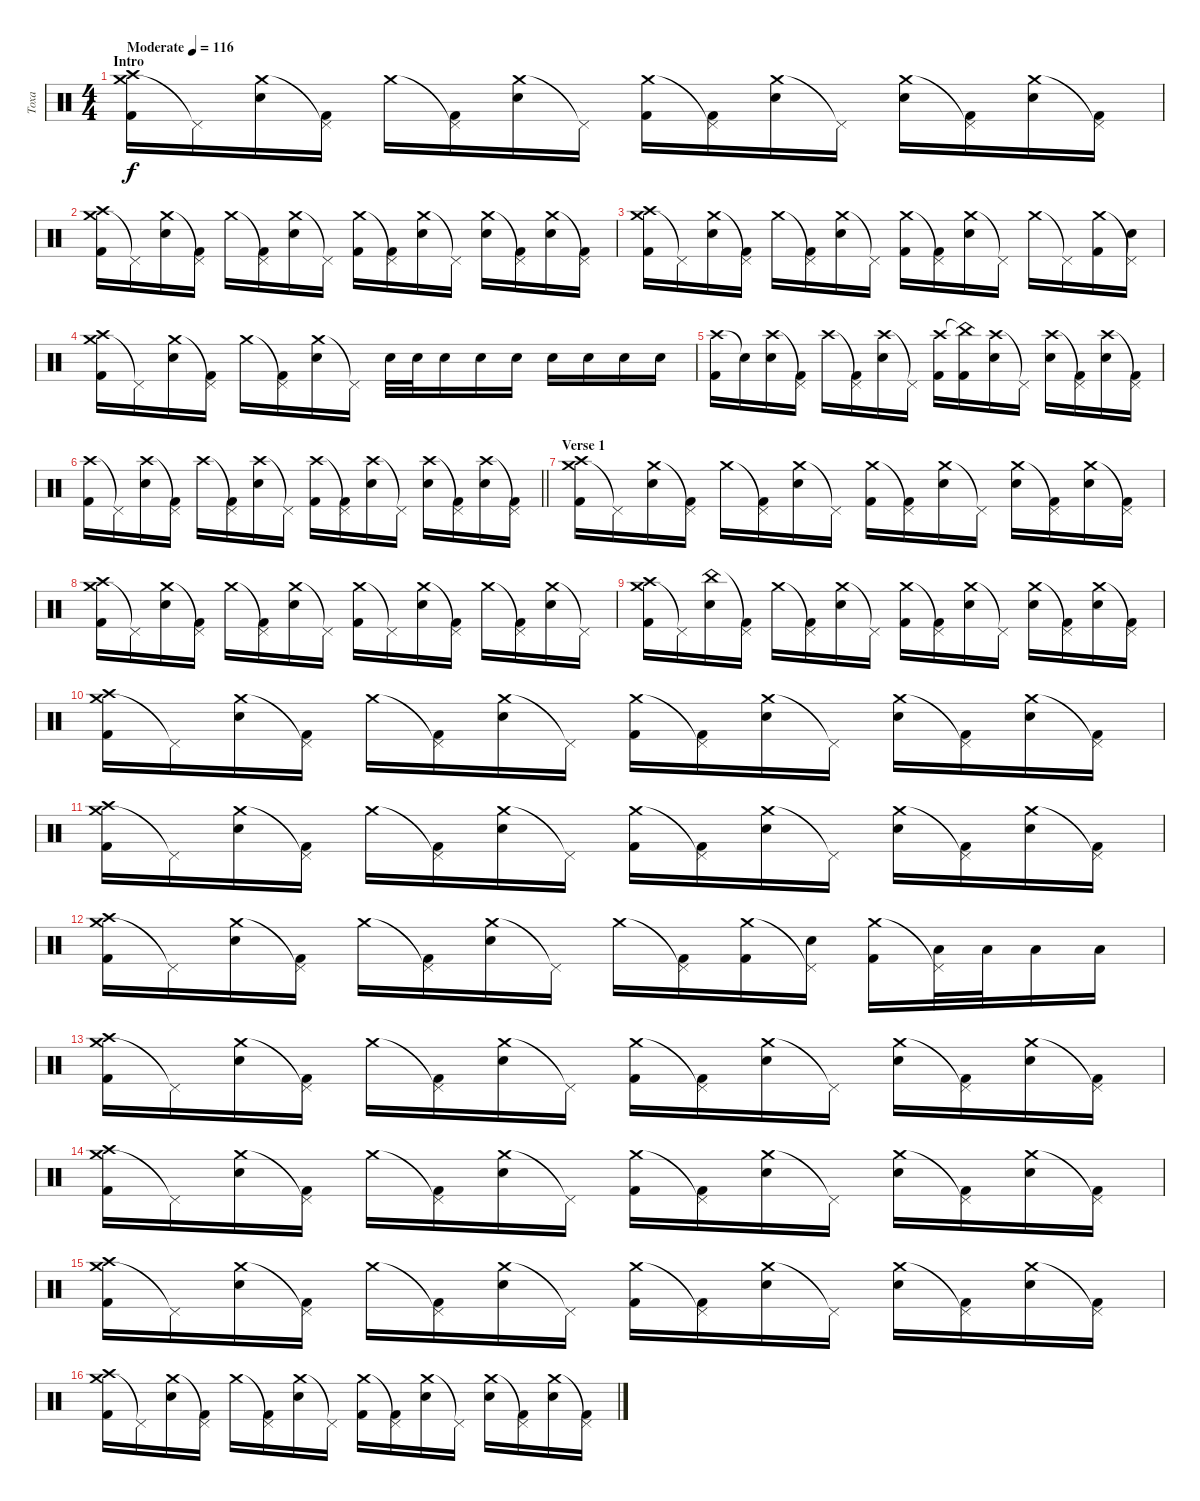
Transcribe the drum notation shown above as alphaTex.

\track ("Тоха" "Тоха") {instrument percussion}
\staff {score}
\articulation defaults
\ts (4 4)
\section ("" "Intro")
\tempo (116 "Moderate")
\clef neutral
\ks c
("Crash medium (hit)" "Crash high (hit)" "Kick (hit) 2").16{dy f} "Pedal Hi-Hat (hit)"{t}.16 ("Crash medium (hit)" "Snare (hit) 2").16 ("Pedal Hi-Hat (hit)"{t} "Kick (hit) 2").16 "Crash medium (hit)".16 ("Pedal Hi-Hat (hit)"{t} "Kick (hit) 2").16 ("Crash medium (hit)" "Snare (hit) 2").16 "Pedal Hi-Hat (hit)"{t}.16 ("Crash medium (hit)" "Kick (hit) 2").16 ("Pedal Hi-Hat (hit)"{t} "Kick (hit) 2").16 ("Crash medium (hit)" "Snare (hit) 2").16 "Pedal Hi-Hat (hit)"{t}.16 ("Crash medium (hit)" "Snare (hit) 2").16 ("Pedal Hi-Hat (hit)"{t} "Kick (hit) 2").16 ("Crash medium (hit)" "Snare (hit) 2").16 ("Pedal Hi-Hat (hit)"{t} "Kick (hit) 2").16 |
("Crash medium (hit)" "Crash high (hit)" "Kick (hit) 2").16 "Pedal Hi-Hat (hit)"{t}.16 ("Crash medium (hit)" "Snare (hit) 2").16 ("Pedal Hi-Hat (hit)"{t} "Kick (hit) 2").16 "Crash medium (hit)".16 ("Pedal Hi-Hat (hit)"{t} "Kick (hit) 2").16 ("Crash medium (hit)" "Snare (hit) 2").16 "Pedal Hi-Hat (hit)"{t}.16 ("Crash medium (hit)" "Kick (hit) 2").16 ("Pedal Hi-Hat (hit)"{t} "Kick (hit) 2").16 ("Crash medium (hit)" "Snare (hit) 2").16 "Pedal Hi-Hat (hit)"{t}.16 ("Crash medium (hit)" "Snare (hit) 2").16 ("Pedal Hi-Hat (hit)"{t} "Kick (hit) 2").16 ("Crash medium (hit)" "Snare (hit) 2").16 ("Pedal Hi-Hat (hit)"{t} "Kick (hit) 2").16 |
("Crash medium (hit)" "Crash high (hit)" "Kick (hit) 2").16 "Pedal Hi-Hat (hit)"{t}.16 ("Crash medium (hit)" "Snare (hit) 2").16 ("Pedal Hi-Hat (hit)"{t} "Kick (hit) 2").16 "Crash medium (hit)".16 ("Pedal Hi-Hat (hit)"{t} "Kick (hit) 2").16 ("Crash medium (hit)" "Snare (hit) 2").16 "Pedal Hi-Hat (hit)"{t}.16 ("Crash medium (hit)" "Kick (hit) 2").16 ("Pedal Hi-Hat (hit)"{t} "Kick (hit) 2").16 ("Crash medium (hit)" "Snare (hit) 2").16 "Pedal Hi-Hat (hit)"{t}.16 "Crash medium (hit)".16 "Pedal Hi-Hat (hit)"{t}.16 ("Crash medium (hit)" "Kick (hit) 2").16 ("Pedal Hi-Hat (hit)"{t} "Snare (hit) 2").16 |
("Crash medium (hit)" "Crash high (hit)" "Kick (hit) 2").16 "Pedal Hi-Hat (hit)"{t}.16 ("Crash medium (hit)" "Snare (hit) 2").16 ("Pedal Hi-Hat (hit)"{t} "Kick (hit) 2").16 "Crash medium (hit)".16 ("Pedal Hi-Hat (hit)"{t} "Kick (hit) 2").16 ("Crash medium (hit)" "Snare (hit) 2").16 "Pedal Hi-Hat (hit)"{t}.16 "Snare (hit) 2".32 "Snare (hit) 2".32 "Snare (hit) 2".16 "Snare (hit) 2".16 "Snare (hit) 2".16 "Snare (hit) 2".16 "Snare (hit) 2".16 "Snare (hit) 2".16 "Snare (hit) 2".16 |
("Crash high (hit)" "Kick (hit) 2").16 "Snare (hit)"{t}.16 ("Crash high (hit)" "Snare (hit) 2").16 ("Pedal Hi-Hat (hit)"{t} "Kick (hit) 2").16 "Crash high (hit)".16 ("Pedal Hi-Hat (hit)"{t} "Kick (hit) 2").16 ("Crash high (hit)" "Snare (hit) 2").16 "Pedal Hi-Hat (hit)"{t}.16 ("Crash high (hit)" "Kick (hit) 2").16 ("China (hit)"{t} "Kick (hit) 2").16 ("Crash high (hit)" "Snare (hit) 2").16 "Pedal Hi-Hat (hit)"{t}.16 ("Crash high (hit)" "Snare (hit) 2").16 ("Pedal Hi-Hat (hit)"{t} "Kick (hit) 2").16 ("Crash high (hit)" "Snare (hit) 2").16 ("Pedal Hi-Hat (hit)"{t} "Kick (hit) 2").16 |
\barLineRight lightlight
("Crash high (hit)" "Kick (hit) 2").16 "Pedal Hi-Hat (hit)"{t}.16 ("Crash high (hit)" "Snare (hit) 2").16 ("Pedal Hi-Hat (hit)"{t} "Kick (hit) 2").16 "Crash high (hit)".16 ("Pedal Hi-Hat (hit)"{t} "Kick (hit) 2").16 ("Crash high (hit)" "Snare (hit) 2").16 "Pedal Hi-Hat (hit)"{t}.16 ("Crash high (hit)" "Kick (hit) 2").16 ("Pedal Hi-Hat (hit)"{t} "Kick (hit) 2").16 ("Crash high (hit)" "Snare (hit) 2").16 "Pedal Hi-Hat (hit)"{t}.16 ("Crash high (hit)" "Snare (hit) 2").16 ("Pedal Hi-Hat (hit)"{t} "Kick (hit) 2").16 ("Crash high (hit)" "Snare (hit) 2").16 ("Pedal Hi-Hat (hit)"{t} "Kick (hit) 2").16 |
\section ("" "Verse 1")
("Crash medium (hit)" "Crash high (hit)" "Kick (hit) 2").16 "Pedal Hi-Hat (hit)"{t}.16 ("Crash medium (hit)" "Snare (hit) 2").16 ("Pedal Hi-Hat (hit)"{t} "Kick (hit) 2").16 "Crash medium (hit)".16 ("Pedal Hi-Hat (hit)"{t} "Kick (hit) 2").16 ("Crash medium (hit)" "Snare (hit) 2").16 "Pedal Hi-Hat (hit)"{t}.16 ("Crash medium (hit)" "Kick (hit) 2").16 ("Pedal Hi-Hat (hit)"{t} "Kick (hit) 2").16 ("Crash medium (hit)" "Snare (hit) 2").16 "Pedal Hi-Hat (hit)"{t}.16 ("Crash medium (hit)" "Snare (hit) 2").16 ("Pedal Hi-Hat (hit)"{t} "Kick (hit) 2").16 ("Crash medium (hit)" "Snare (hit) 2").16 ("Pedal Hi-Hat (hit)"{t} "Kick (hit) 2").16 |
("Crash medium (hit)" "Crash high (hit)" "Kick (hit) 2").16 "Pedal Hi-Hat (hit)"{t}.16 ("Crash medium (hit)" "Snare (hit) 2").16 ("Pedal Hi-Hat (hit)"{t} "Kick (hit) 2").16 "Crash medium (hit)".16 ("Pedal Hi-Hat (hit)"{t} "Kick (hit) 2").16 ("Crash medium (hit)" "Snare (hit) 2").16 "Pedal Hi-Hat (hit)"{t}.16 ("Crash medium (hit)" "Kick (hit) 2").16 "Pedal Hi-Hat (hit)"{t}.16 ("Crash medium (hit)" "Snare (hit) 2").16 ("Pedal Hi-Hat (hit)"{t} "Kick (hit) 2").16 "Crash medium (hit)".16 ("Pedal Hi-Hat (hit)"{t} "Kick (hit) 2").16 ("Crash medium (hit)" "Snare (hit) 2").16 "Pedal Hi-Hat (hit)"{t}.16 |
("Crash medium (hit)" "Crash high (hit)" "Kick (hit) 2").16 "Pedal Hi-Hat (hit)"{t}.16 ("China (hit)" "Snare (hit) 2").16 ("Pedal Hi-Hat (hit)"{t} "Kick (hit) 2").16 "Crash medium (hit)".16 ("Pedal Hi-Hat (hit)"{t} "Kick (hit) 2").16 ("Crash medium (hit)" "Snare (hit) 2").16 "Pedal Hi-Hat (hit)"{t}.16 ("Crash medium (hit)" "Kick (hit) 2").16 ("Pedal Hi-Hat (hit)"{t} "Kick (hit) 2").16 ("Crash medium (hit)" "Snare (hit) 2").16 "Pedal Hi-Hat (hit)"{t}.16 ("Crash medium (hit)" "Snare (hit) 2").16 ("Pedal Hi-Hat (hit)"{t} "Kick (hit) 2").16 ("Crash medium (hit)" "Snare (hit) 2").16 ("Pedal Hi-Hat (hit)"{t} "Kick (hit) 2").16 |
("Crash medium (hit)" "Crash high (hit)" "Kick (hit) 2").16 "Pedal Hi-Hat (hit)"{t}.16 ("Crash medium (hit)" "Snare (hit) 2").16 ("Pedal Hi-Hat (hit)"{t} "Kick (hit) 2").16 "Crash medium (hit)".16 ("Pedal Hi-Hat (hit)"{t} "Kick (hit) 2").16 ("Crash medium (hit)" "Snare (hit) 2").16 "Pedal Hi-Hat (hit)"{t}.16 ("Crash medium (hit)" "Kick (hit) 2").16 ("Pedal Hi-Hat (hit)"{t} "Kick (hit) 2").16 ("Crash medium (hit)" "Snare (hit) 2").16 "Pedal Hi-Hat (hit)"{t}.16 ("Crash medium (hit)" "Snare (hit) 2").16 ("Pedal Hi-Hat (hit)"{t} "Kick (hit) 2").16 ("Crash medium (hit)" "Snare (hit) 2").16 ("Pedal Hi-Hat (hit)"{t} "Kick (hit) 2").16 |
("Crash medium (hit)" "Crash high (hit)" "Kick (hit) 2").16 "Pedal Hi-Hat (hit)"{t}.16 ("Crash medium (hit)" "Snare (hit) 2").16 ("Pedal Hi-Hat (hit)"{t} "Kick (hit) 2").16 "Crash medium (hit)".16 ("Pedal Hi-Hat (hit)"{t} "Kick (hit) 2").16 ("Crash medium (hit)" "Snare (hit) 2").16 "Pedal Hi-Hat (hit)"{t}.16 ("Crash medium (hit)" "Kick (hit) 2").16 ("Pedal Hi-Hat (hit)"{t} "Kick (hit) 2").16 ("Crash medium (hit)" "Snare (hit) 2").16 "Pedal Hi-Hat (hit)"{t}.16 ("Crash medium (hit)" "Snare (hit) 2").16 ("Pedal Hi-Hat (hit)"{t} "Kick (hit) 2").16 ("Crash medium (hit)" "Snare (hit) 2").16 ("Pedal Hi-Hat (hit)"{t} "Kick (hit) 2").16 |
("Crash medium (hit)" "Crash high (hit)" "Kick (hit) 2").16 "Pedal Hi-Hat (hit)"{t}.16 ("Crash medium (hit)" "Snare (hit) 2").16 ("Pedal Hi-Hat (hit)"{t} "Kick (hit) 2").16 "Crash medium (hit)".16 ("Pedal Hi-Hat (hit)"{t} "Kick (hit) 2").16 ("Crash medium (hit)" "Snare (hit) 2").16 "Pedal Hi-Hat (hit)"{t}.16 "Crash medium (hit)".16 ("Pedal Hi-Hat (hit)"{t} "Kick (hit) 2").16 ("Crash medium (hit)" "Kick (hit) 2").16 ("Pedal Hi-Hat (hit)"{t} "Snare (hit) 2").16 ("Crash medium (hit)" "Kick (hit) 2").16 ("Pedal Hi-Hat (hit)"{t} "Low Floor Tom (hit)").32 "Low Floor Tom (hit)".32 "Low Floor Tom (hit)".16 "Low Floor Tom (hit)".16 |
("Crash medium (hit)" "Crash high (hit)" "Kick (hit) 2").16 "Pedal Hi-Hat (hit)"{t}.16 ("Crash medium (hit)" "Snare (hit) 2").16 ("Pedal Hi-Hat (hit)"{t} "Kick (hit) 2").16 "Crash medium (hit)".16 ("Pedal Hi-Hat (hit)"{t} "Kick (hit) 2").16 ("Crash medium (hit)" "Snare (hit) 2").16 "Pedal Hi-Hat (hit)"{t}.16 ("Crash medium (hit)" "Kick (hit) 2").16 ("Pedal Hi-Hat (hit)"{t} "Kick (hit) 2").16 ("Crash medium (hit)" "Snare (hit) 2").16 "Pedal Hi-Hat (hit)"{t}.16 ("Crash medium (hit)" "Snare (hit) 2").16 ("Pedal Hi-Hat (hit)"{t} "Kick (hit) 2").16 ("Crash medium (hit)" "Snare (hit) 2").16 ("Pedal Hi-Hat (hit)"{t} "Kick (hit) 2").16 |
("Crash medium (hit)" "Crash high (hit)" "Kick (hit) 2").16 "Pedal Hi-Hat (hit)"{t}.16 ("Crash medium (hit)" "Snare (hit) 2").16 ("Pedal Hi-Hat (hit)"{t} "Kick (hit) 2").16 "Crash medium (hit)".16 ("Pedal Hi-Hat (hit)"{t} "Kick (hit) 2").16 ("Crash medium (hit)" "Snare (hit) 2").16 "Pedal Hi-Hat (hit)"{t}.16 ("Crash medium (hit)" "Kick (hit) 2").16 ("Pedal Hi-Hat (hit)"{t} "Kick (hit) 2").16 ("Crash medium (hit)" "Snare (hit) 2").16 "Pedal Hi-Hat (hit)"{t}.16 ("Crash medium (hit)" "Snare (hit) 2").16 ("Pedal Hi-Hat (hit)"{t} "Kick (hit) 2").16 ("Crash medium (hit)" "Snare (hit) 2").16 ("Pedal Hi-Hat (hit)"{t} "Kick (hit) 2").16 |
("Crash medium (hit)" "Crash high (hit)" "Kick (hit) 2").16 "Pedal Hi-Hat (hit)"{t}.16 ("Crash medium (hit)" "Snare (hit) 2").16 ("Pedal Hi-Hat (hit)"{t} "Kick (hit) 2").16 "Crash medium (hit)".16 ("Pedal Hi-Hat (hit)"{t} "Kick (hit) 2").16 ("Crash medium (hit)" "Snare (hit) 2").16 "Pedal Hi-Hat (hit)"{t}.16 ("Crash medium (hit)" "Kick (hit) 2").16 ("Pedal Hi-Hat (hit)"{t} "Kick (hit) 2").16 ("Crash medium (hit)" "Snare (hit) 2").16 "Pedal Hi-Hat (hit)"{t}.16 ("Crash medium (hit)" "Snare (hit) 2").16 ("Pedal Hi-Hat (hit)"{t} "Kick (hit) 2").16 ("Crash medium (hit)" "Snare (hit) 2").16 ("Pedal Hi-Hat (hit)"{t} "Kick (hit) 2").16 |
("Crash medium (hit)" "Crash high (hit)" "Kick (hit) 2").16 "Pedal Hi-Hat (hit)"{t}.16 ("Crash medium (hit)" "Snare (hit) 2").16 ("Pedal Hi-Hat (hit)"{t} "Kick (hit) 2").16 "Crash medium (hit)".16 ("Pedal Hi-Hat (hit)"{t} "Kick (hit) 2").16 ("Crash medium (hit)" "Snare (hit) 2").16 "Pedal Hi-Hat (hit)"{t}.16 ("Crash medium (hit)" "Kick (hit) 2").16 ("Pedal Hi-Hat (hit)"{t} "Kick (hit) 2").16 ("Crash medium (hit)" "Snare (hit) 2").16 "Pedal Hi-Hat (hit)"{t}.16 ("Crash medium (hit)" "Snare (hit) 2").16 ("Pedal Hi-Hat (hit)"{t} "Kick (hit) 2").16 ("Crash medium (hit)" "Snare (hit) 2").16 ("Pedal Hi-Hat (hit)"{t} "Kick (hit) 2").16
